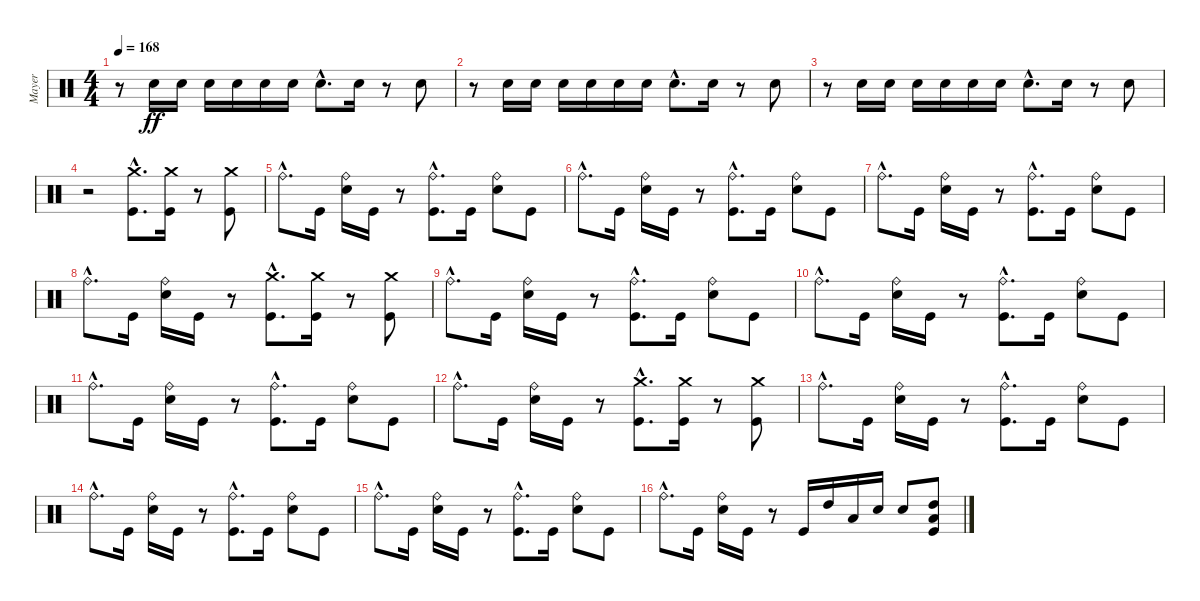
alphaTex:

\track ("Mayer" "Mayer") {instrument percussion}
\staff {score}
\articulation defaults
\ts (4 4)
\tempo 168
\clef neutral
\ks c
r.8{dy ff} "Electric Snare (hit)".16 "Electric Snare (hit)".16 "Electric Snare (hit)".16 "Electric Snare (hit)".16 "Electric Snare (hit)".16 "Electric Snare (hit)".16 "Electric Snare (hit)"{hac}.8{d} "Electric Snare (hit)".16 r.8 "Electric Snare (hit)".8 |
r.8 "Electric Snare (hit)".16 "Electric Snare (hit)".16 "Electric Snare (hit)".16 "Electric Snare (hit)".16 "Electric Snare (hit)".16 "Electric Snare (hit)".16 "Electric Snare (hit)"{hac}.8{d} "Electric Snare (hit)".16 r.8 "Electric Snare (hit)".8 |
r.8 "Electric Snare (hit)".16 "Electric Snare (hit)".16 "Electric Snare (hit)".16 "Electric Snare (hit)".16 "Electric Snare (hit)".16 "Electric Snare (hit)".16 "Electric Snare (hit)"{hac}.8{d} "Electric Snare (hit)".16 r.8 "Electric Snare (hit)".8 |
r.2 ("Kick (hit)"{hac} "Crash medium (hit)"{hac}).8{d} ("Kick (hit)" "Crash medium (hit)").16 r.8 ("Kick (hit)" "Crash medium (hit)").8 |
"Ride (bell)"{hac}.8{d} "Kick (hit)".16 ("Electric Snare (hit)" "Ride (bell)").16 "Kick (hit)".16 r.8 ("Kick (hit)"{hac} "Ride (bell)"{hac}).8{d} "Kick (hit)".16 ("Electric Snare (hit)" "Ride (bell)").8 "Kick (hit)".8 |
"Ride (bell)"{hac}.8{d} "Kick (hit)".16 ("Electric Snare (hit)" "Ride (bell)").16 "Kick (hit)".16 r.8 ("Kick (hit)"{hac} "Ride (bell)"{hac}).8{d} "Kick (hit)".16 ("Electric Snare (hit)" "Ride (bell)").8 "Kick (hit)".8 |
"Ride (bell)"{hac}.8{d} "Kick (hit)".16 ("Electric Snare (hit)" "Ride (bell)").16 "Kick (hit)".16 r.8 ("Kick (hit)"{hac} "Ride (bell)"{hac}).8{d} "Kick (hit)".16 ("Electric Snare (hit)" "Ride (bell)").8 "Kick (hit)".8 |
"Ride (bell)"{hac}.8{d} "Kick (hit)".16 ("Electric Snare (hit)" "Ride (bell)").16 "Kick (hit)".16 r.8 ("Kick (hit)"{hac} "Crash medium (hit)"{hac}).8{d} ("Kick (hit)" "Crash medium (hit)").16 r.8 ("Kick (hit)" "Crash medium (hit)").8 |
"Ride (bell)"{hac}.8{d} "Kick (hit)".16 ("Electric Snare (hit)" "Ride (bell)").16 "Kick (hit)".16 r.8 ("Kick (hit)"{hac} "Ride (bell)"{hac}).8{d} "Kick (hit)".16 ("Electric Snare (hit)" "Ride (bell)").8 "Kick (hit)".8 |
"Ride (bell)"{hac}.8{d} "Kick (hit)".16 ("Electric Snare (hit)" "Ride (bell)").16 "Kick (hit)".16 r.8 ("Kick (hit)"{hac} "Ride (bell)"{hac}).8{d} "Kick (hit)".16 ("Electric Snare (hit)" "Ride (bell)").8 "Kick (hit)".8 |
"Ride (bell)"{hac}.8{d} "Kick (hit)".16 ("Electric Snare (hit)" "Ride (bell)").16 "Kick (hit)".16 r.8 ("Kick (hit)"{hac} "Ride (bell)"{hac}).8{d} "Kick (hit)".16 ("Electric Snare (hit)" "Ride (bell)").8 "Kick (hit)".8 |
"Ride (bell)"{hac}.8{d} "Kick (hit)".16 ("Electric Snare (hit)" "Ride (bell)").16 "Kick (hit)".16 r.8 ("Kick (hit)"{hac} "Crash medium (hit)"{hac}).8{d} ("Kick (hit)" "Crash medium (hit)").16 r.8 ("Kick (hit)" "Crash medium (hit)").8 |
"Ride (bell)"{hac}.8{d} "Kick (hit)".16 ("Electric Snare (hit)" "Ride (bell)").16 "Kick (hit)".16 r.8 ("Kick (hit)"{hac} "Ride (bell)"{hac}).8{d} "Kick (hit)".16 ("Electric Snare (hit)" "Ride (bell)").8 "Kick (hit)".8 |
"Ride (bell)"{hac}.8{d} "Kick (hit)".16 ("Electric Snare (hit)" "Ride (bell)").16 "Kick (hit)".16 r.8 ("Kick (hit)"{hac} "Ride (bell)"{hac}).8{d} "Kick (hit)".16 ("Electric Snare (hit)" "Ride (bell)").8 "Kick (hit)".8 |
"Ride (bell)"{hac}.8{d} "Kick (hit)".16 ("Electric Snare (hit)" "Ride (bell)").16 "Kick (hit)".16 r.8 ("Kick (hit)"{hac} "Ride (bell)"{hac}).8{d} "Kick (hit)".16 ("Electric Snare (hit)" "Ride (bell)").8 "Kick (hit)".8 |
"Ride (bell)"{hac}.8{d} "Kick (hit)".16 ("Electric Snare (hit)" "Ride (bell)").16 "Kick (hit)".16 r.8 "Kick (hit)".16 "High Tom (hit)".16 "Low Tom (hit)".16 "Electric Snare (hit)".16 "Electric Snare (hit)".8 ("Kick (hit)" "Low Tom (hit)" "High Tom (hit)").8
